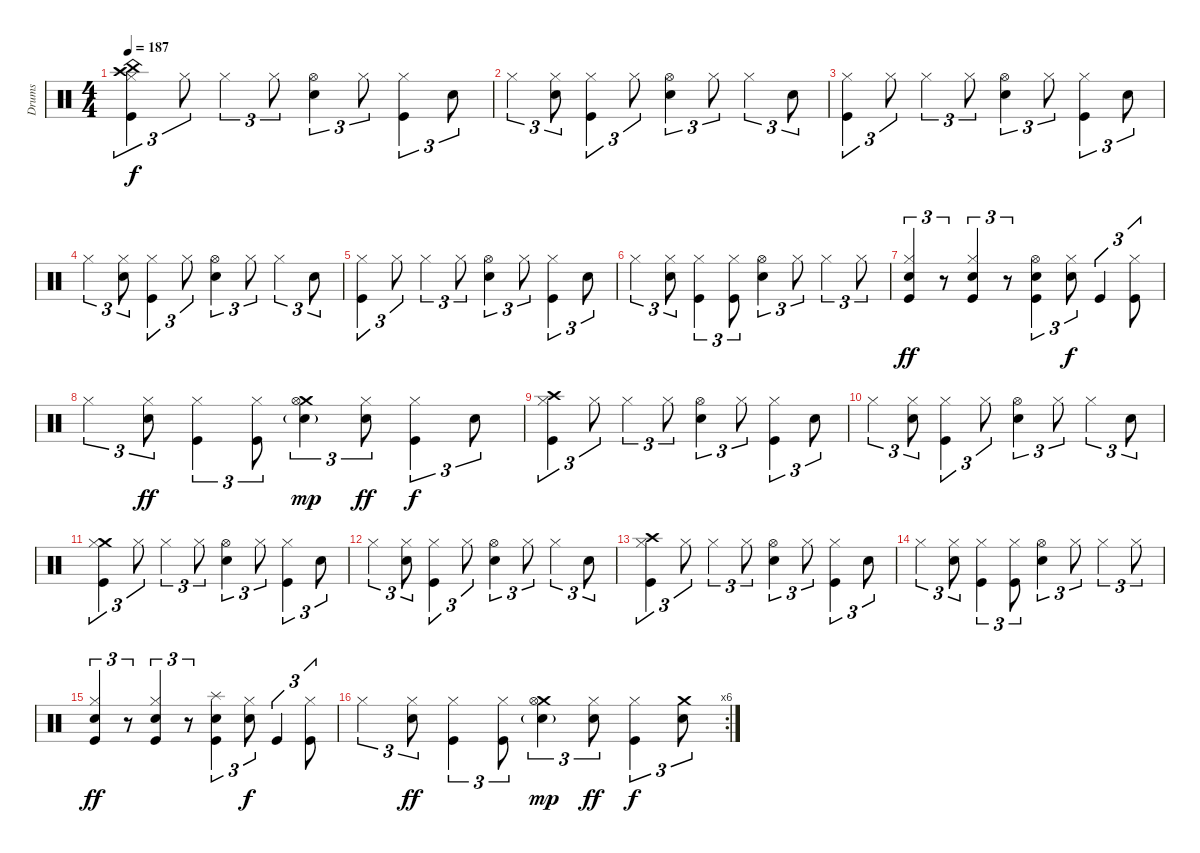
\track ("Drums" "Drums") {instrument percussion}
\staff {score}
\articulation defaults
\ts (4 4)
\tempo 187
\clef neutral
\ks c
("Kick (hit)" "Crash high (hit)" "China (hit)" "Hi-Hat (closed)").4{tu (3 2) dy f} "Hi-Hat (closed)".8{tu (3 2)} "Hi-Hat (closed)".4{tu (3 2)} "Hi-Hat (closed)".8{tu (3 2)} ("Snare (hit) 2" "Hi-Hat (open)").4{tu (3 2)} "Hi-Hat (closed)".8{tu (3 2)} ("Kick (hit)" "Hi-Hat (closed)").4{tu (3 2)} "Snare (hit) 2".8{tu (3 2)} |
"Hi-Hat (closed)".4{tu (3 2)} ("Snare (hit) 2" "Hi-Hat (closed)").8{tu (3 2)} ("Kick (hit)" "Hi-Hat (closed)").4{tu (3 2)} "Hi-Hat (closed)".8{tu (3 2)} ("Snare (hit) 2" "Hi-Hat (open)").4{tu (3 2)} "Hi-Hat (closed)".8{tu (3 2)} "Hi-Hat (closed)".4{tu (3 2)} "Snare (hit) 2".8{tu (3 2)} |
("Kick (hit)" "Hi-Hat (closed)").4{tu (3 2)} "Hi-Hat (closed)".8{tu (3 2)} "Hi-Hat (closed)".4{tu (3 2)} "Hi-Hat (closed)".8{tu (3 2)} ("Snare (hit) 2" "Hi-Hat (open)").4{tu (3 2)} "Hi-Hat (closed)".8{tu (3 2)} ("Kick (hit)" "Hi-Hat (closed)").4{tu (3 2)} "Snare (hit) 2".8{tu (3 2)} |
"Hi-Hat (closed)".4{tu (3 2)} ("Snare (hit) 2" "Hi-Hat (closed)").8{tu (3 2)} ("Kick (hit)" "Hi-Hat (closed)").4{tu (3 2)} "Hi-Hat (closed)".8{tu (3 2)} ("Snare (hit) 2" "Hi-Hat (open)").4{tu (3 2)} "Hi-Hat (closed)".8{tu (3 2)} "Hi-Hat (closed)".4{tu (3 2)} "Snare (hit) 2".8{tu (3 2)} |
("Kick (hit)" "Hi-Hat (closed)").4{tu (3 2)} "Hi-Hat (closed)".8{tu (3 2)} "Hi-Hat (closed)".4{tu (3 2)} "Hi-Hat (closed)".8{tu (3 2)} ("Snare (hit) 2" "Hi-Hat (open)").4{tu (3 2)} "Hi-Hat (closed)".8{tu (3 2)} ("Kick (hit)" "Hi-Hat (closed)").4{tu (3 2)} "Snare (hit) 2".8{tu (3 2)} |
"Hi-Hat (closed)".4{tu (3 2)} ("Snare (hit) 2" "Hi-Hat (closed)").8{tu (3 2)} ("Kick (hit)" "Hi-Hat (closed)").4{tu (3 2)} ("Kick (hit)" "Hi-Hat (closed)").8{tu (3 2)} ("Snare (hit) 2" "Hi-Hat (open)").4{tu (3 2)} "Hi-Hat (closed)".8{tu (3 2)} "Hi-Hat (closed)".4{tu (3 2)} "Hi-Hat (closed)".8{tu (3 2)} |
("Kick (hit)" "Snare (hit) 2" "Hi-Hat (closed)").4{tu (3 2) dy ff} r.8{tu (3 2)} ("Kick (hit)" "Snare (hit) 2" "Hi-Hat (closed)").4{tu (3 2)} r.8{tu (3 2)} ("Kick (hit)" "Snare (hit) 2" "Hi-Hat (open)").4{tu (3 2)} ("Snare (hit) 2" "Hi-Hat (closed)").8{tu (3 2) dy f} "Kick (hit)".4{tu (3 2)} ("Kick (hit)" "Hi-Hat (closed)").8{tu (3 2)} |
"Hi-Hat (closed)".4{tu (3 2)} ("Snare (hit) 2" "Hi-Hat (closed)").8{tu (3 2) dy ff} ("Kick (hit)" "Hi-Hat (closed)").4{tu (3 2)} ("Kick (hit)" "Hi-Hat (closed)").8{tu (3 2)} ("Crash medium (hit)" "Snare (hit) 2"{g} "Hi-Hat (open)").4{tu (3 2) dy mp} ("Snare (hit) 2" "Hi-Hat (closed)").8{tu (3 2) dy ff} ("Kick (hit)" "Hi-Hat (closed)").4{tu (3 2) dy f} "Snare (hit) 2".8{tu (3 2)} |
("Kick (hit)" "Crash high (hit)" "Hi-Hat (closed)").4{tu (3 2)} "Hi-Hat (closed)".8{tu (3 2)} "Hi-Hat (closed)".4{tu (3 2)} "Hi-Hat (closed)".8{tu (3 2)} ("Snare (hit) 2" "Hi-Hat (open)").4{tu (3 2)} "Hi-Hat (closed)".8{tu (3 2)} ("Kick (hit)" "Hi-Hat (closed)").4{tu (3 2)} "Snare (hit) 2".8{tu (3 2)} |
"Hi-Hat (closed)".4{tu (3 2)} ("Snare (hit) 2" "Hi-Hat (closed)").8{tu (3 2)} ("Kick (hit)" "Hi-Hat (closed)").4{tu (3 2)} "Hi-Hat (closed)".8{tu (3 2)} ("Snare (hit) 2" "Hi-Hat (open)").4{tu (3 2)} "Hi-Hat (closed)".8{tu (3 2)} "Hi-Hat (closed)".4{tu (3 2)} "Snare (hit) 2".8{tu (3 2)} |
("Kick (hit)" "Crash medium (hit)" "Hi-Hat (closed)").4{tu (3 2)} "Hi-Hat (closed)".8{tu (3 2)} "Hi-Hat (closed)".4{tu (3 2)} "Hi-Hat (closed)".8{tu (3 2)} ("Snare (hit) 2" "Hi-Hat (open)").4{tu (3 2)} "Hi-Hat (closed)".8{tu (3 2)} ("Kick (hit)" "Hi-Hat (closed)").4{tu (3 2)} "Snare (hit) 2".8{tu (3 2)} |
"Hi-Hat (closed)".4{tu (3 2)} ("Snare (hit) 2" "Hi-Hat (closed)").8{tu (3 2)} ("Kick (hit)" "Hi-Hat (closed)").4{tu (3 2)} "Hi-Hat (closed)".8{tu (3 2)} ("Snare (hit) 2" "Hi-Hat (open)").4{tu (3 2)} "Hi-Hat (closed)".8{tu (3 2)} "Hi-Hat (closed)".4{tu (3 2)} "Snare (hit) 2".8{tu (3 2)} |
("Kick (hit)" "Crash high (hit)" "Hi-Hat (closed)").4{tu (3 2)} "Hi-Hat (closed)".8{tu (3 2)} "Hi-Hat (closed)".4{tu (3 2)} "Hi-Hat (closed)".8{tu (3 2)} ("Snare (hit) 2" "Hi-Hat (open)").4{tu (3 2)} "Hi-Hat (closed)".8{tu (3 2)} ("Kick (hit)" "Hi-Hat (closed)").4{tu (3 2)} "Snare (hit) 2".8{tu (3 2)} |
"Hi-Hat (closed)".4{tu (3 2)} ("Snare (hit) 2" "Hi-Hat (closed)").8{tu (3 2)} ("Kick (hit)" "Hi-Hat (closed)").4{tu (3 2)} ("Kick (hit)" "Hi-Hat (closed)").8{tu (3 2)} ("Snare (hit) 2" "Hi-Hat (open)").4{tu (3 2)} "Hi-Hat (closed)".8{tu (3 2)} "Hi-Hat (closed)".4{tu (3 2)} "Hi-Hat (closed)".8{tu (3 2)} |
("Kick (hit)" "Snare (hit) 2" "Hi-Hat (closed)").4{tu (3 2) dy ff} r.8{tu (3 2)} ("Kick (hit)" "Snare (hit) 2" "Hi-Hat (closed)").4{tu (3 2)} r.8{tu (3 2)} ("Kick (hit)" "Snare (hit) 2" "Splash (hit)").4{tu (3 2)} ("Snare (hit) 2" "Hi-Hat (closed)").8{tu (3 2) dy f} "Kick (hit)".4{tu (3 2)} ("Kick (hit)" "Hi-Hat (closed)").8{tu (3 2)} |
\rc 6 "Hi-Hat (closed)".4{tu (3 2)}
("Snare (hit) 2" "Hi-Hat (closed)").8{tu (3 2) dy ff} ("Kick (hit)" "Hi-Hat (closed)").4{tu (3 2)} ("Kick (hit)" "Hi-Hat (closed)").8{tu (3 2)} ("Crash medium (hit)" "Snare (hit) 2"{g} "Hi-Hat (open)").4{tu (3 2) dy mp} ("Snare (hit) 2" "Hi-Hat (closed)").8{tu (3 2) dy ff} ("Kick (hit)" "Hi-Hat (closed)").4{tu (3 2) dy f} ("Crash medium (hit)" "Snare (hit) 2").8{tu (3 2)}
